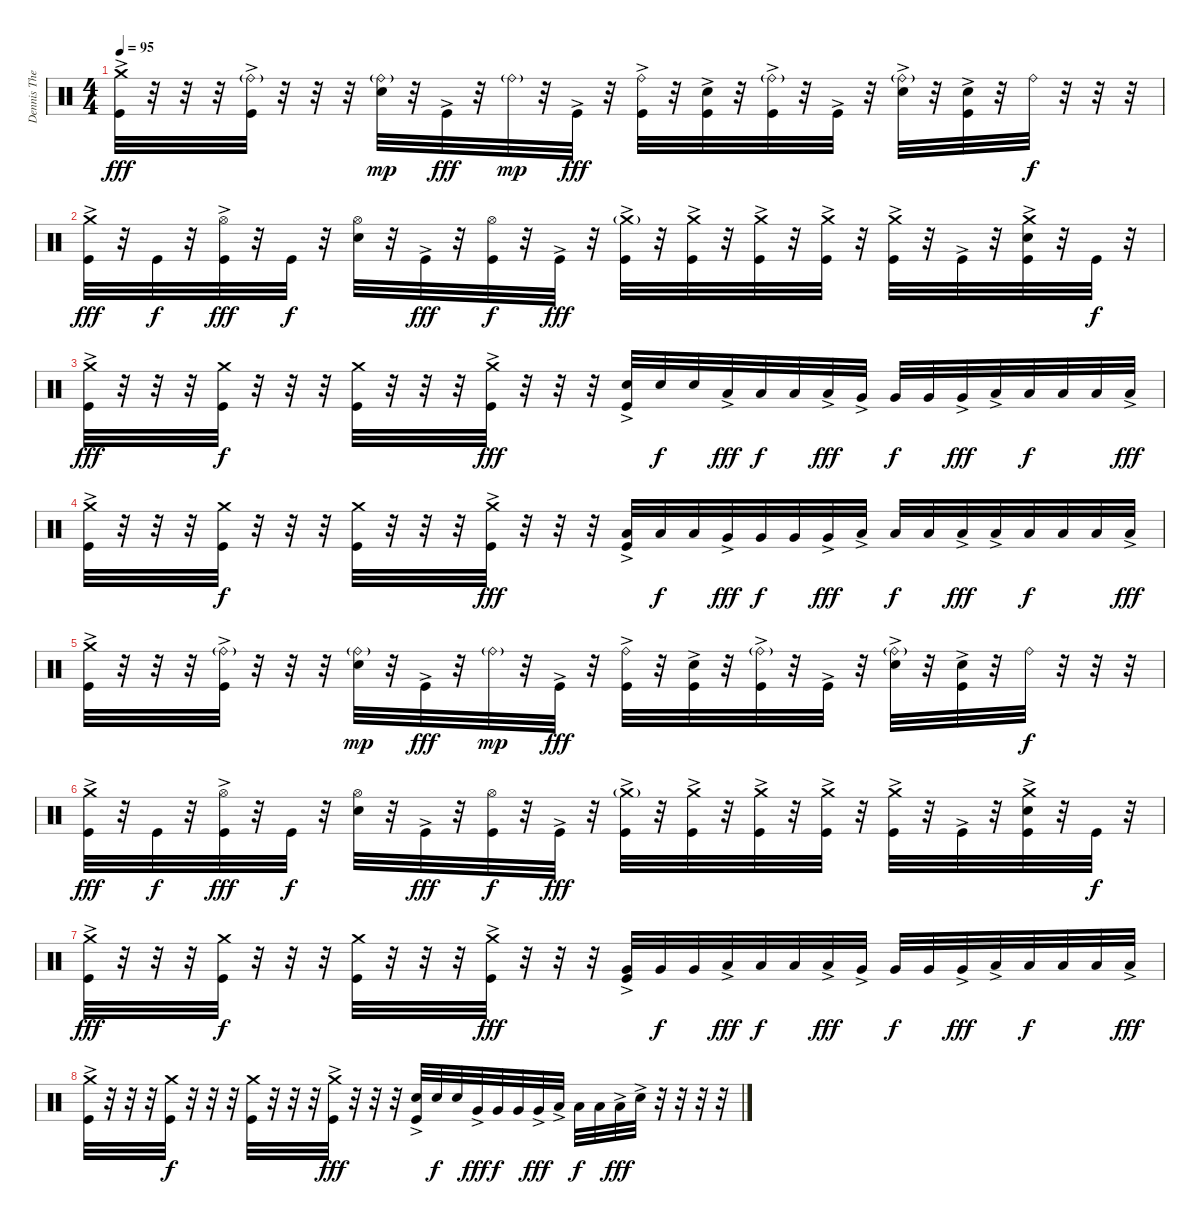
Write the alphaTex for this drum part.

\track ("Dennis The Menace" "Dennis The") {instrument percussion}
\staff {score}
\articulation defaults
\ts (4 4)
\tempo 95
\clef neutral
\ks c
("Crash medium (hit)" "Kick (hit)"{ac}).32{dy fff} r.32 r.32 r.32 ("Ride (bell)"{g} "Kick (hit)"{ac}).32 r.32 r.32 r.32 ("Ride (bell)"{g} "Electric Snare (hit)").32{dy mp} r.32 "Kick (hit)"{ac}.32{dy fff} r.32 "Ride (bell)"{g}.32{dy mp} r.32 "Kick (hit)"{ac}.32{dy fff} r.32 ("Ride (bell)" "Kick (hit)"{ac}).32 r.32 ("Electric Snare (hit)"{ac} "Kick (hit)"{ac}).32 r.32 ("Ride (bell)"{g} "Kick (hit)"{ac}).32 r.32 "Kick (hit)"{ac}.32 r.32 ("Ride (bell)"{g} "Electric Snare (hit)"{ac}).32 r.32 ("Electric Snare (hit)" "Kick (hit)"{ac}).32 r.32 "Ride (bell)".32{dy f} r.32 r.32 r.32 |
("Crash medium (hit)" "Kick (hit)"{ac}).32{dy fff} r.32 "Kick (hit)".32{dy f} r.32 ("Hi-Hat (open)" "Kick (hit)"{ac}).32{dy fff} r.32 "Kick (hit)".32{dy f} r.32 ("Hi-Hat (open)" "Electric Snare (hit)").32 r.32 "Kick (hit)"{ac}.32{dy fff} r.32 ("Hi-Hat (open)" "Kick (hit)").32{dy f} r.32 "Kick (hit)"{ac}.32{dy fff} r.32 ("Crash medium (hit)"{g} "Kick (hit)"{ac}).32 r.32 ("Crash medium (hit)" "Kick (hit)"{ac}).32 r.32 ("Crash medium (hit)" "Kick (hit)"{ac}).32 r.32 ("Crash medium (hit)"{ac} "Kick (hit)"{ac}).32 r.32 ("Crash medium (hit)"{ac} "Kick (hit)"{ac}).32 r.32 "Kick (hit)"{ac}.32 r.32 ("Crash medium (hit)" "Kick (hit)" "Electric Snare (hit)"{ac}).32 r.32 "Kick (hit)".32{dy f} r.32 |
("Crash medium (hit)"{ac} "Kick (hit)").32{dy fff} r.32 r.32 r.32 ("Crash medium (hit)" "Kick (hit)").32{dy f} r.32 r.32 r.32 ("Crash medium (hit)" "Kick (hit)").32 r.32 r.32 r.32 ("Crash medium (hit)"{ac} "Kick (hit)").32{dy fff} r.32 r.32 r.32 ("Electric Snare (hit)"{ac} "Kick (hit)").32 "Electric Snare (hit)".32{dy f} "Electric Snare (hit)".32 "Low Tom (hit)"{ac}.32{dy fff} "Low Tom (hit)".32{dy f} "Low Tom (hit)".32 "Low Tom (hit)"{ac}.32{dy fff} "Very Low Tom (hit)"{ac}.32 "Very Low Tom (hit)".32{dy f} "Very Low Tom (hit)".32 "Very Low Tom (hit)"{ac}.32{dy fff} "Low Floor Tom (hit)"{ac}.32 "Low Floor Tom (hit)".32{dy f} "Low Floor Tom (hit)".32 "Low Floor Tom (hit)".32 "Low Floor Tom (hit)"{ac}.32{dy fff} |
("Crash medium (hit)"{ac} "Kick (hit)").32 r.32 r.32 r.32 ("Crash medium (hit)" "Kick (hit)").32{dy f} r.32 r.32 r.32 ("Crash medium (hit)" "Kick (hit)").32 r.32 r.32 r.32 ("Crash medium (hit)"{ac} "Kick (hit)").32{dy fff} r.32 r.32 r.32 ("Low Floor Tom (hit)"{ac} "Kick (hit)").32 "Low Floor Tom (hit)".32{dy f} "Low Floor Tom (hit)".32 "Very Low Tom (hit)"{ac}.32{dy fff} "Very Low Tom (hit)".32{dy f} "Very Low Tom (hit)".32 "Very Low Tom (hit)"{ac}.32{dy fff} "Low Floor Tom (hit)"{ac}.32 "Low Floor Tom (hit)".32{dy f} "Low Floor Tom (hit)".32 "Low Floor Tom (hit)"{ac}.32{dy fff} "Low Floor Tom (hit)"{ac}.32 "Low Floor Tom (hit)".32{dy f} "Low Floor Tom (hit)".32 "Low Floor Tom (hit)".32 "Low Floor Tom (hit)"{ac}.32{dy fff} |
("Crash medium (hit)" "Kick (hit)"{ac}).32 r.32 r.32 r.32 ("Ride (bell)"{g} "Kick (hit)"{ac}).32 r.32 r.32 r.32 ("Ride (bell)"{g} "Electric Snare (hit)").32{dy mp} r.32 "Kick (hit)"{ac}.32{dy fff} r.32 "Ride (bell)"{g}.32{dy mp} r.32 "Kick (hit)"{ac}.32{dy fff} r.32 ("Ride (bell)" "Kick (hit)"{ac}).32 r.32 ("Electric Snare (hit)"{ac} "Kick (hit)"{ac}).32 r.32 ("Ride (bell)"{g} "Kick (hit)"{ac}).32 r.32 "Kick (hit)"{ac}.32 r.32 ("Ride (bell)"{g} "Electric Snare (hit)"{ac}).32 r.32 ("Electric Snare (hit)" "Kick (hit)"{ac}).32 r.32 "Ride (bell)".32{dy f} r.32 r.32 r.32 |
("Crash medium (hit)" "Kick (hit)"{ac}).32{dy fff} r.32 "Kick (hit)".32{dy f} r.32 ("Hi-Hat (open)" "Kick (hit)"{ac}).32{dy fff} r.32 "Kick (hit)".32{dy f} r.32 ("Hi-Hat (open)" "Electric Snare (hit)").32 r.32 "Kick (hit)"{ac}.32{dy fff} r.32 ("Hi-Hat (open)" "Kick (hit)").32{dy f} r.32 "Kick (hit)"{ac}.32{dy fff} r.32 ("Crash medium (hit)"{g} "Kick (hit)"{ac}).32 r.32 ("Crash medium (hit)" "Kick (hit)"{ac}).32 r.32 ("Crash medium (hit)" "Kick (hit)"{ac}).32 r.32 ("Crash medium (hit)"{ac} "Kick (hit)"{ac}).32 r.32 ("Crash medium (hit)"{ac} "Kick (hit)"{ac}).32 r.32 "Kick (hit)"{ac}.32 r.32 ("Crash medium (hit)" "Kick (hit)" "Electric Snare (hit)"{ac}).32 r.32 "Kick (hit)".32{dy f} r.32 |
("Crash medium (hit)"{ac} "Kick (hit)").32{dy fff} r.32 r.32 r.32 ("Crash medium (hit)" "Kick (hit)").32{dy f} r.32 r.32 r.32 ("Crash medium (hit)" "Kick (hit)").32 r.32 r.32 r.32 ("Crash medium (hit)"{ac} "Kick (hit)").32{dy fff} r.32 r.32 r.32 ("Very Low Tom (hit)"{ac} "Kick (hit)").32 "Very Low Tom (hit)".32{dy f} "Very Low Tom (hit)".32 "Low Tom (hit)"{ac}.32{dy fff} "Low Tom (hit)".32{dy f} "Low Tom (hit)".32 "Low Tom (hit)"{ac}.32{dy fff} "Very Low Tom (hit)"{ac}.32 "Very Low Tom (hit)".32{dy f} "Very Low Tom (hit)".32 "Very Low Tom (hit)"{ac}.32{dy fff} "Low Floor Tom (hit)"{ac}.32 "Low Floor Tom (hit)".32{dy f} "Low Floor Tom (hit)".32 "Low Floor Tom (hit)".32 "Low Floor Tom (hit)"{ac}.32{dy fff} |
("Crash medium (hit)"{ac} "Kick (hit)").32 r.32 r.32 r.32 ("Crash medium (hit)" "Kick (hit)").32{dy f} r.32 r.32 r.32 ("Crash medium (hit)" "Kick (hit)").32 r.32 r.32 r.32 ("Crash medium (hit)"{ac} "Kick (hit)").32{dy fff} r.32 r.32 r.32 ("Electric Snare (hit)"{ac} "Kick (hit)").32 "Electric Snare (hit)".32{dy f} "Electric Snare (hit)".32 "Very Low Tom (hit)"{ac}.32{dy fff} "Very Low Tom (hit)".32{dy f} "Very Low Tom (hit)".32 "Very Low Tom (hit)"{ac}.32{dy fff} "Low Floor Tom (hit)"{ac}.32 "Low Floor Tom (hit)".32{dy f} "Low Floor Tom (hit)".32 "Low Floor Tom (hit)"{ac}.32{dy fff} "Electric Snare (hit)"{ac}.32 r.32 r.32 r.32 r.32
